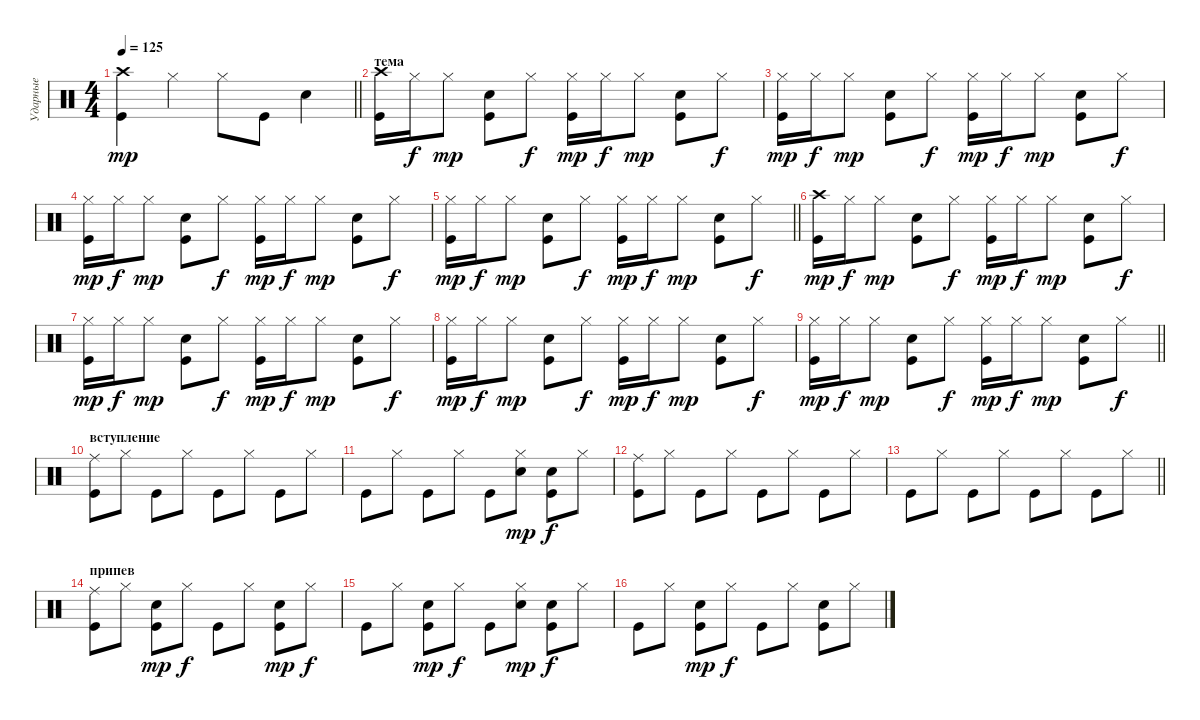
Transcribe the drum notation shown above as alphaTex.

\track ("Ударные" "Ударные") {instrument percussion}
\staff {score}
\articulation defaults
\ts (4 4)
\tempo 125
\clef neutral
\barLineRight lightlight
\ks c
("Crash high (hit)" "Kick (hit)").4{dy mp} "Hi-Hat (closed)".4 "Hi-Hat (closed)".8 "Kick (hit)".8 "Snare (hit) 2".4 |
\section ("" "тема")
("Crash high (hit)" "Kick (hit)").16 "Hi-Hat (closed)".16{dy f} "Hi-Hat (closed)".8{dy mp} ("Electric Snare (hit)" "Kick (hit)").8 "Hi-Hat (closed)".8{dy f} ("Hi-Hat (closed)" "Kick (hit)").16{dy mp} "Hi-Hat (closed)".16{dy f} "Hi-Hat (closed)".8{dy mp} ("Electric Snare (hit)" "Kick (hit)").8 "Hi-Hat (closed)".8{dy f} |
("Hi-Hat (closed)" "Kick (hit)").16{dy mp} "Hi-Hat (closed)".16{dy f} "Hi-Hat (closed)".8{dy mp} ("Electric Snare (hit)" "Kick (hit)").8 "Hi-Hat (closed)".8{dy f} ("Hi-Hat (closed)" "Kick (hit)").16{dy mp} "Hi-Hat (closed)".16{dy f} "Hi-Hat (closed)".8{dy mp} ("Electric Snare (hit)" "Kick (hit)").8 "Hi-Hat (closed)".8{dy f} |
("Hi-Hat (closed)" "Kick (hit)").16{dy mp} "Hi-Hat (closed)".16{dy f} "Hi-Hat (closed)".8{dy mp} ("Electric Snare (hit)" "Kick (hit)").8 "Hi-Hat (closed)".8{dy f} ("Hi-Hat (closed)" "Kick (hit)").16{dy mp} "Hi-Hat (closed)".16{dy f} "Hi-Hat (closed)".8{dy mp} ("Electric Snare (hit)" "Kick (hit)").8 "Hi-Hat (closed)".8{dy f} |
\barLineRight lightlight
("Hi-Hat (closed)" "Kick (hit)").16{dy mp} "Hi-Hat (closed)".16{dy f} "Hi-Hat (closed)".8{dy mp} ("Electric Snare (hit)" "Kick (hit)").8 "Hi-Hat (closed)".8{dy f} ("Hi-Hat (closed)" "Kick (hit)").16{dy mp} "Hi-Hat (closed)".16{dy f} "Hi-Hat (closed)".8{dy mp} ("Electric Snare (hit)" "Kick (hit)").8 "Hi-Hat (closed)".8{dy f} |
("Crash high (hit)" "Kick (hit)").16{dy mp} "Hi-Hat (closed)".16{dy f} "Hi-Hat (closed)".8{dy mp} ("Electric Snare (hit)" "Kick (hit)").8 "Hi-Hat (closed)".8{dy f} ("Hi-Hat (closed)" "Kick (hit)").16{dy mp} "Hi-Hat (closed)".16{dy f} "Hi-Hat (closed)".8{dy mp} ("Electric Snare (hit)" "Kick (hit)").8 "Hi-Hat (closed)".8{dy f} |
("Hi-Hat (closed)" "Kick (hit)").16{dy mp} "Hi-Hat (closed)".16{dy f} "Hi-Hat (closed)".8{dy mp} ("Electric Snare (hit)" "Kick (hit)").8 "Hi-Hat (closed)".8{dy f} ("Hi-Hat (closed)" "Kick (hit)").16{dy mp} "Hi-Hat (closed)".16{dy f} "Hi-Hat (closed)".8{dy mp} ("Electric Snare (hit)" "Kick (hit)").8 "Hi-Hat (closed)".8{dy f} |
("Hi-Hat (closed)" "Kick (hit)").16{dy mp} "Hi-Hat (closed)".16{dy f} "Hi-Hat (closed)".8{dy mp} ("Electric Snare (hit)" "Kick (hit)").8 "Hi-Hat (closed)".8{dy f} ("Hi-Hat (closed)" "Kick (hit)").16{dy mp} "Hi-Hat (closed)".16{dy f} "Hi-Hat (closed)".8{dy mp} ("Electric Snare (hit)" "Kick (hit)").8 "Hi-Hat (closed)".8{dy f} |
\barLineRight lightlight
("Hi-Hat (closed)" "Kick (hit)").16{dy mp} "Hi-Hat (closed)".16{dy f} "Hi-Hat (closed)".8{dy mp} ("Electric Snare (hit)" "Kick (hit)").8 "Hi-Hat (closed)".8{dy f} ("Hi-Hat (closed)" "Kick (hit)").16{dy mp} "Hi-Hat (closed)".16{dy f} "Hi-Hat (closed)".8{dy mp} ("Electric Snare (hit)" "Kick (hit)").8 "Hi-Hat (closed)".8{dy f} |
\section ("" "вступление")
("Ride (middle)" "Kick (hit)").8 "Hi-Hat (closed)".8 "Kick (hit)".8 "Hi-Hat (closed)".8 "Kick (hit)".8 "Hi-Hat (closed)".8 "Kick (hit)".8 "Hi-Hat (closed)".8 |
"Kick (hit)".8 "Hi-Hat (closed)".8 "Kick (hit)".8 "Hi-Hat (closed)".8 "Kick (hit)".8 ("Hand Clap (hit)" "Hi-Hat (closed)").8{dy mp} ("Hand Clap (hit)" "Kick (hit)").8{dy f} "Hi-Hat (closed)".8 |
("Ride (middle)" "Kick (hit)").8 "Hi-Hat (closed)".8 "Kick (hit)".8 "Hi-Hat (closed)".8 "Kick (hit)".8 "Hi-Hat (closed)".8 "Kick (hit)".8 "Hi-Hat (closed)".8 |
\barLineRight lightlight "Kick (hit)".8 "Hi-Hat (closed)".8 "Kick (hit)".8 "Hi-Hat (closed)".8 "Kick (hit)".8 "Hi-Hat (closed)".8 "Kick (hit)".8 "Hi-Hat (closed)".8
|
\section ("" "припев")
("Ride (middle)" "Kick (hit)").8 "Hi-Hat (closed)".8 ("Hand Clap (hit)" "Kick (hit)").8{dy mp} "Hi-Hat (closed)".8{dy f} "Kick (hit)".8 "Hi-Hat (closed)".8 ("Hand Clap (hit)" "Kick (hit)").8{dy mp} "Hi-Hat (closed)".8{dy f} |
"Kick (hit)".8 "Hi-Hat (closed)".8 ("Hand Clap (hit)" "Kick (hit)").8{dy mp} "Hi-Hat (closed)".8{dy f} "Kick (hit)".8 ("Hand Clap (hit)" "Hi-Hat (closed)").8{dy mp} ("Hand Clap (hit)" "Kick (hit)").8{dy f} "Hi-Hat (closed)".8 |
"Kick (hit)".8 "Hi-Hat (closed)".8 ("Hand Clap (hit)" "Kick (hit)").8{dy mp} "Hi-Hat (closed)".8{dy f} "Kick (hit)".8 "Hi-Hat (closed)".8 ("Hand Clap (hit)" "Kick (hit)").8 "Hi-Hat (closed)".8
